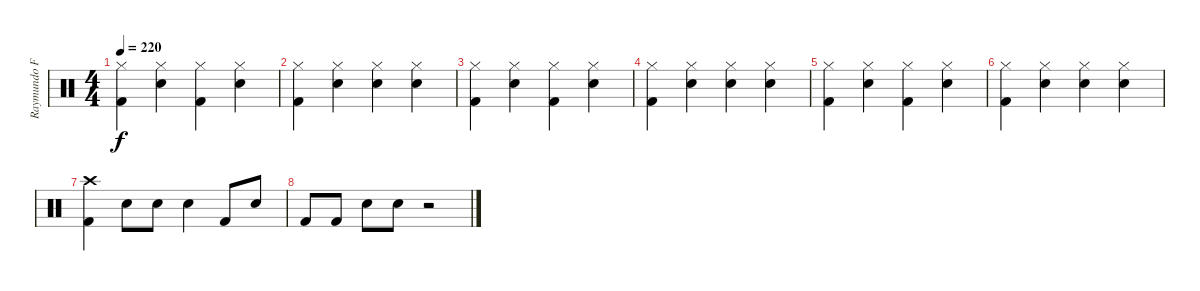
\track ("Raymundo Fajaro" "Raymundo F") {instrument percussion}
\staff {score}
\articulation defaults
\ts (4 4)
\tempo 220
\clef neutral
\ks c
("Kick (hit) 2" "Hi-Hat (closed)").4{dy f} ("Electric Snare (hit)" "Hi-Hat (closed)").4 ("Kick (hit) 2" "Hi-Hat (closed)").4 ("Electric Snare (hit)" "Hi-Hat (closed)").4 |
("Kick (hit) 2" "Hi-Hat (closed)").4 ("Electric Snare (hit)" "Hi-Hat (closed)").4 ("Electric Snare (hit)" "Hi-Hat (closed)").4 ("Electric Snare (hit)" "Hi-Hat (closed)").4 |
("Kick (hit) 2" "Hi-Hat (closed)").4 ("Electric Snare (hit)" "Hi-Hat (closed)").4 ("Kick (hit) 2" "Hi-Hat (closed)").4 ("Electric Snare (hit)" "Hi-Hat (closed)").4 |
("Kick (hit) 2" "Hi-Hat (closed)").4 ("Electric Snare (hit)" "Hi-Hat (closed)").4 ("Electric Snare (hit)" "Hi-Hat (closed)").4 ("Electric Snare (hit)" "Hi-Hat (closed)").4 |
("Kick (hit) 2" "Hi-Hat (closed)").4 ("Electric Snare (hit)" "Hi-Hat (closed)").4 ("Kick (hit) 2" "Hi-Hat (closed)").4 ("Electric Snare (hit)" "Hi-Hat (closed)").4 |
("Kick (hit) 2" "Hi-Hat (closed)").4 ("Electric Snare (hit)" "Hi-Hat (closed)").4 ("Electric Snare (hit)" "Hi-Hat (closed)").4 ("Electric Snare (hit)" "Hi-Hat (closed)").4 |
("Kick (hit) 2" "Crash high (hit)").4 "Electric Snare (hit)".8 "Electric Snare (hit)".8 "Electric Snare (hit)".4 "Kick (hit) 2".8 "Electric Snare (hit)".8 |
"Kick (hit) 2".8 "Kick (hit) 2".8 "Electric Snare (hit)".8 "Electric Snare (hit)".8 r.2
